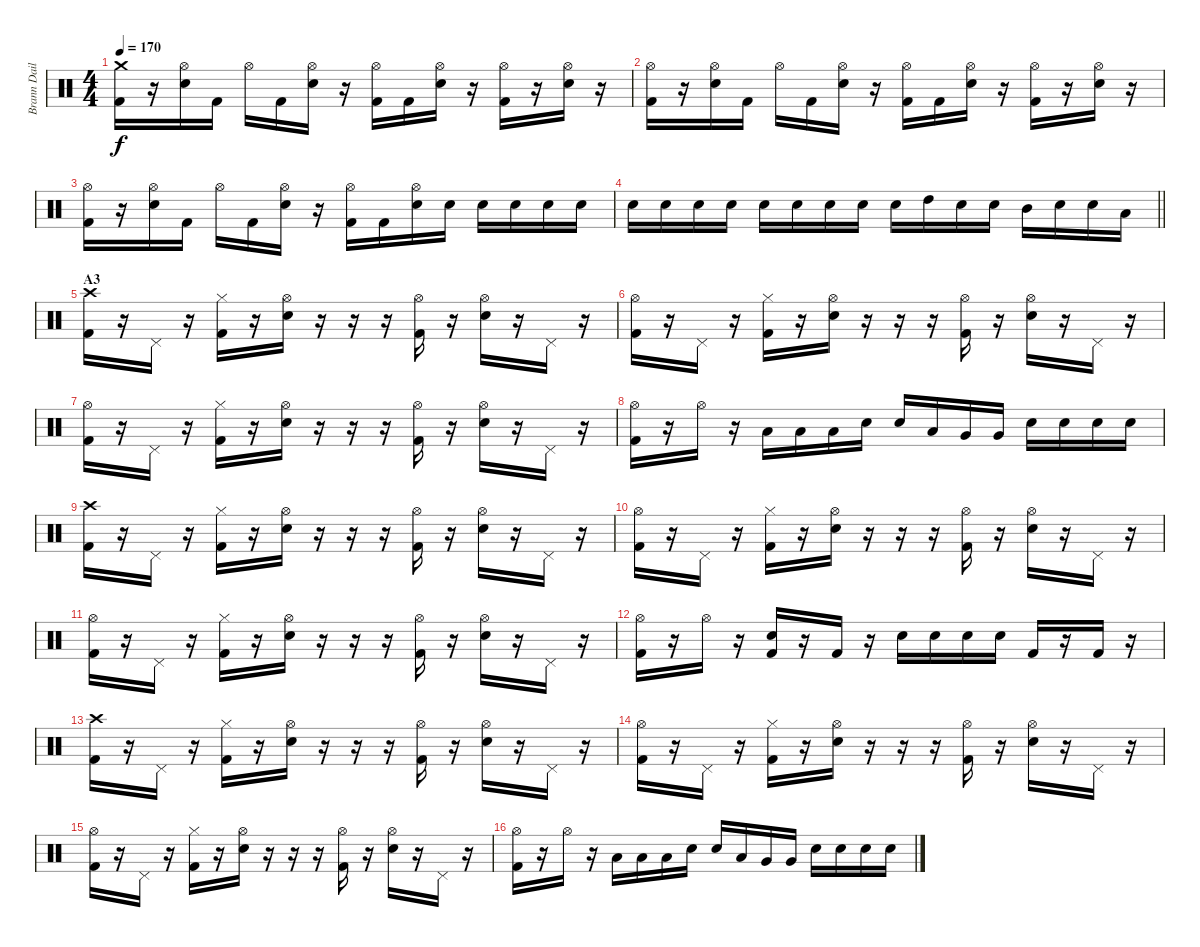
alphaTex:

\track ("Brann Dailor" "Brann Dail") {instrument percussion}
\staff {score}
\articulation defaults
\ts (4 4)
\tempo 170
\clef neutral
\ks c
("Crash medium (hit)" "Kick (hit) 2").16{dy f} r.16 ("Hi-Hat (open)" "Electric Snare (hit)").16 "Kick (hit) 2".16 "Hi-Hat (open)".16 "Kick (hit) 2".16 ("Hi-Hat (open)" "Electric Snare (hit)").16 r.16 ("Hi-Hat (open)" "Kick (hit) 2").16 "Kick (hit) 2".16 ("Hi-Hat (open)" "Electric Snare (hit)").16 r.16 ("Hi-Hat (open)" "Kick (hit) 2").16 r.16 ("Hi-Hat (open)" "Electric Snare (hit)").16 r.16 |
("Hi-Hat (open)" "Kick (hit) 2").16 r.16 ("Hi-Hat (open)" "Electric Snare (hit)").16 "Kick (hit) 2".16 "Hi-Hat (open)".16 "Kick (hit) 2".16 ("Hi-Hat (open)" "Electric Snare (hit)").16 r.16 ("Hi-Hat (open)" "Kick (hit) 2").16 "Kick (hit) 2".16 ("Hi-Hat (open)" "Electric Snare (hit)").16 r.16 ("Hi-Hat (open)" "Kick (hit) 2").16 r.16 ("Hi-Hat (open)" "Electric Snare (hit)").16 r.16 |
("Hi-Hat (open)" "Kick (hit) 2").16 r.16 ("Hi-Hat (open)" "Electric Snare (hit)").16 "Kick (hit) 2".16 "Hi-Hat (open)".16 "Kick (hit) 2".16 ("Hi-Hat (open)" "Electric Snare (hit)").16 r.16 ("Hi-Hat (open)" "Kick (hit) 2").16 "Kick (hit) 2".16 ("Hi-Hat (open)" "Electric Snare (hit)").16 "Electric Snare (hit)".16 "Electric Snare (hit)".16 "Electric Snare (hit)".16 "Electric Snare (hit)".16 "Electric Snare (hit)".16 |
\barLineRight lightlight "Electric Snare (hit)".16 "Electric Snare (hit)".16 "Electric Snare (hit)".16 "Electric Snare (hit)".16 "Electric Snare (hit)".16 "Electric Snare (hit)".16 "Electric Snare (hit)".16 "Electric Snare (hit)".16 "Electric Snare (hit)".16 "High Tom (hit)".16 "Electric Snare (hit)".16 "Electric Snare (hit)".16 "Mid Tom (hit)".16 "Electric Snare (hit)".16 "Electric Snare (hit)".16 "Low Tom (hit)".16
|
\section ("" "A3")
("Crash high (hit)" "Kick (hit) 2").16 r.16 "Pedal Hi-Hat (hit)".16 r.16 ("Hi-Hat (closed)" "Kick (hit) 2").16 r.16 ("Hi-Hat (open)" "Electric Snare (hit)").16 r.16 r.16 r.16 ("Hi-Hat (open)" "Kick (hit) 2").16 r.16 ("Hi-Hat (open)" "Electric Snare (hit)").16 r.16 "Pedal Hi-Hat (hit)".16 r.16 |
("Hi-Hat (open)" "Kick (hit) 2").16 r.16 "Pedal Hi-Hat (hit)".16 r.16 ("Hi-Hat (closed)" "Kick (hit) 2").16 r.16 ("Hi-Hat (open)" "Electric Snare (hit)").16 r.16 r.16 r.16 ("Hi-Hat (open)" "Kick (hit) 2").16 r.16 ("Hi-Hat (open)" "Electric Snare (hit)").16 r.16 "Pedal Hi-Hat (hit)".16 r.16 |
("Hi-Hat (open)" "Kick (hit) 2").16 r.16 "Pedal Hi-Hat (hit)".16 r.16 ("Hi-Hat (closed)" "Kick (hit) 2").16 r.16 ("Hi-Hat (open)" "Electric Snare (hit)").16 r.16 r.16 r.16 ("Hi-Hat (open)" "Kick (hit) 2").16 r.16 ("Hi-Hat (open)" "Electric Snare (hit)").16 r.16 "Pedal Hi-Hat (hit)".16 r.16 |
("Hi-Hat (open)" "Kick (hit) 2").16 r.16 "Hi-Hat (open)".16 r.16 "Low Tom (hit)".16 "Low Tom (hit)".16 "Low Tom (hit)".16 "Electric Snare (hit)".16 "Electric Snare (hit)".16 "Low Tom (hit)".16 "Very Low Tom (hit)".16 "Very Low Tom (hit)".16 "Snare (hit) 2".16 "Electric Snare (hit)".16 "Electric Snare (hit)".16 "Electric Snare (hit)".16 |
("Crash high (hit)" "Kick (hit) 2").16 r.16 "Pedal Hi-Hat (hit)".16 r.16 ("Hi-Hat (closed)" "Kick (hit) 2").16 r.16 ("Hi-Hat (open)" "Electric Snare (hit)").16 r.16 r.16 r.16 ("Hi-Hat (open)" "Kick (hit) 2").16 r.16 ("Hi-Hat (open)" "Electric Snare (hit)").16 r.16 "Pedal Hi-Hat (hit)".16 r.16 |
("Hi-Hat (open)" "Kick (hit) 2").16 r.16 "Pedal Hi-Hat (hit)".16 r.16 ("Hi-Hat (closed)" "Kick (hit) 2").16 r.16 ("Hi-Hat (open)" "Electric Snare (hit)").16 r.16 r.16 r.16 ("Hi-Hat (open)" "Kick (hit) 2").16 r.16 ("Hi-Hat (open)" "Electric Snare (hit)").16 r.16 "Pedal Hi-Hat (hit)".16 r.16 |
("Hi-Hat (open)" "Kick (hit) 2").16 r.16 "Pedal Hi-Hat (hit)".16 r.16 ("Hi-Hat (closed)" "Kick (hit) 2").16 r.16 ("Hi-Hat (open)" "Electric Snare (hit)").16 r.16 r.16 r.16 ("Hi-Hat (open)" "Kick (hit) 2").16 r.16 ("Hi-Hat (open)" "Electric Snare (hit)").16 r.16 "Pedal Hi-Hat (hit)".16 r.16 |
("Hi-Hat (open)" "Kick (hit) 2").16 r.16 "Hi-Hat (open)".16 r.16 ("Electric Snare (hit)" "Kick (hit) 2").16 r.16 "Kick (hit) 2".16 r.16 "Electric Snare (hit)".16 "Electric Snare (hit)".16 "Electric Snare (hit)".16 "Electric Snare (hit)".16 "Kick (hit) 2".16 r.16 "Kick (hit) 2".16 r.16 |
("Crash high (hit)" "Kick (hit) 2").16 r.16 "Pedal Hi-Hat (hit)".16 r.16 ("Hi-Hat (closed)" "Kick (hit) 2").16 r.16 ("Hi-Hat (open)" "Electric Snare (hit)").16 r.16 r.16 r.16 ("Hi-Hat (open)" "Kick (hit) 2").16 r.16 ("Hi-Hat (open)" "Electric Snare (hit)").16 r.16 "Pedal Hi-Hat (hit)".16 r.16 |
("Hi-Hat (open)" "Kick (hit) 2").16 r.16 "Pedal Hi-Hat (hit)".16 r.16 ("Hi-Hat (closed)" "Kick (hit) 2").16 r.16 ("Hi-Hat (open)" "Electric Snare (hit)").16 r.16 r.16 r.16 ("Hi-Hat (open)" "Kick (hit) 2").16 r.16 ("Hi-Hat (open)" "Electric Snare (hit)").16 r.16 "Pedal Hi-Hat (hit)".16 r.16 |
("Hi-Hat (open)" "Kick (hit) 2").16 r.16 "Pedal Hi-Hat (hit)".16 r.16 ("Hi-Hat (closed)" "Kick (hit) 2").16 r.16 ("Hi-Hat (open)" "Electric Snare (hit)").16 r.16 r.16 r.16 ("Hi-Hat (open)" "Kick (hit) 2").16 r.16 ("Hi-Hat (open)" "Electric Snare (hit)").16 r.16 "Pedal Hi-Hat (hit)".16 r.16 |
("Hi-Hat (open)" "Kick (hit) 2").16 r.16 "Hi-Hat (open)".16 r.16 "Low Tom (hit)".16 "Low Tom (hit)".16 "Low Tom (hit)".16 "Electric Snare (hit)".16 "Electric Snare (hit)".16 "Low Tom (hit)".16 "Very Low Tom (hit)".16 "Very Low Tom (hit)".16 "Snare (hit) 2".16 "Electric Snare (hit)".16 "Electric Snare (hit)".16 "Electric Snare (hit)".16
